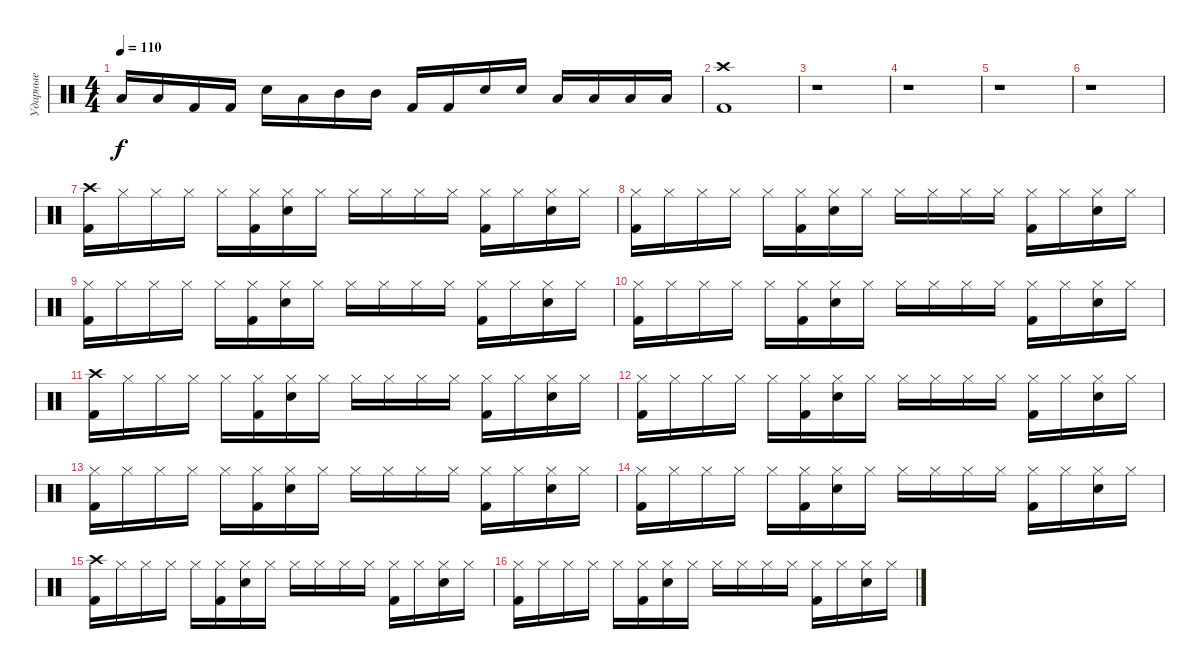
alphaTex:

\track ("Ударные" "Ударные") {instrument percussion}
\staff {score}
\articulation defaults
\ts (4 4)
\tempo 110
\clef neutral
\ks c "Low Tom (hit)".16{dy f} "Low Tom (hit)".16 "Kick (hit) 2".16 "Kick (hit) 2".16 "Electric Snare (hit)".16 "Low Tom (hit)".16 "Mid Tom (hit)".16 "Mid Tom (hit)".16 "Kick (hit) 2".16 "Kick (hit) 2".16 "Electric Snare (hit)".16 "Electric Snare (hit)".16 "Low Tom (hit)".16 "Low Tom (hit)".16 "Low Tom (hit)".16 "Low Tom (hit)".16
|
("Crash high (hit)" "Kick (hit) 2").1 |
r.1 |
r.1 |
r.1 |
r.1 |
("Crash high (hit)" "Kick (hit) 2").16 "Hi-Hat (closed)".16 "Hi-Hat (closed)".16 "Hi-Hat (closed)".16 "Hi-Hat (closed)".16 ("Kick (hit) 2" "Hi-Hat (closed)").16 ("Hi-Hat (closed)" "Electric Snare (hit)").16 "Hi-Hat (closed)".16 "Hi-Hat (closed)".16 "Hi-Hat (closed)".16 "Hi-Hat (closed)".16 "Hi-Hat (closed)".16 ("Kick (hit) 2" "Hi-Hat (closed)").16 "Hi-Hat (closed)".16 ("Hi-Hat (closed)" "Electric Snare (hit)").16 "Hi-Hat (closed)".16 |
("Hi-Hat (closed)" "Kick (hit) 2").16 "Hi-Hat (closed)".16 "Hi-Hat (closed)".16 "Hi-Hat (closed)".16 "Hi-Hat (closed)".16 ("Kick (hit) 2" "Hi-Hat (closed)").16 ("Hi-Hat (closed)" "Electric Snare (hit)").16 "Hi-Hat (closed)".16 "Hi-Hat (closed)".16 "Hi-Hat (closed)".16 "Hi-Hat (closed)".16 "Hi-Hat (closed)".16 ("Kick (hit) 2" "Hi-Hat (closed)").16 "Hi-Hat (closed)".16 ("Hi-Hat (closed)" "Electric Snare (hit)").16 "Hi-Hat (closed)".16 |
("Hi-Hat (closed)" "Kick (hit) 2").16 "Hi-Hat (closed)".16 "Hi-Hat (closed)".16 "Hi-Hat (closed)".16 "Hi-Hat (closed)".16 ("Kick (hit) 2" "Hi-Hat (closed)").16 ("Hi-Hat (closed)" "Electric Snare (hit)").16 "Hi-Hat (closed)".16 "Hi-Hat (closed)".16 "Hi-Hat (closed)".16 "Hi-Hat (closed)".16 "Hi-Hat (closed)".16 ("Kick (hit) 2" "Hi-Hat (closed)").16 "Hi-Hat (closed)".16 ("Hi-Hat (closed)" "Electric Snare (hit)").16 "Hi-Hat (closed)".16 |
("Hi-Hat (closed)" "Kick (hit) 2").16 "Hi-Hat (closed)".16 "Hi-Hat (closed)".16 "Hi-Hat (closed)".16 "Hi-Hat (closed)".16 ("Kick (hit) 2" "Hi-Hat (closed)").16 ("Hi-Hat (closed)" "Electric Snare (hit)").16 "Hi-Hat (closed)".16 "Hi-Hat (closed)".16 "Hi-Hat (closed)".16 "Hi-Hat (closed)".16 "Hi-Hat (closed)".16 ("Kick (hit) 2" "Hi-Hat (closed)").16 "Hi-Hat (closed)".16 ("Hi-Hat (closed)" "Electric Snare (hit)").16 "Hi-Hat (closed)".16 |
("Crash high (hit)" "Kick (hit) 2").16 "Hi-Hat (closed)".16 "Hi-Hat (closed)".16 "Hi-Hat (closed)".16 "Hi-Hat (closed)".16 ("Kick (hit) 2" "Hi-Hat (closed)").16 ("Hi-Hat (closed)" "Electric Snare (hit)").16 "Hi-Hat (closed)".16 "Hi-Hat (closed)".16 "Hi-Hat (closed)".16 "Hi-Hat (closed)".16 "Hi-Hat (closed)".16 ("Kick (hit) 2" "Hi-Hat (closed)").16 "Hi-Hat (closed)".16 ("Hi-Hat (closed)" "Electric Snare (hit)").16 "Hi-Hat (closed)".16 |
("Hi-Hat (closed)" "Kick (hit) 2").16 "Hi-Hat (closed)".16 "Hi-Hat (closed)".16 "Hi-Hat (closed)".16 "Hi-Hat (closed)".16 ("Kick (hit) 2" "Hi-Hat (closed)").16 ("Hi-Hat (closed)" "Electric Snare (hit)").16 "Hi-Hat (closed)".16 "Hi-Hat (closed)".16 "Hi-Hat (closed)".16 "Hi-Hat (closed)".16 "Hi-Hat (closed)".16 ("Kick (hit) 2" "Hi-Hat (closed)").16 "Hi-Hat (closed)".16 ("Hi-Hat (closed)" "Electric Snare (hit)").16 "Hi-Hat (closed)".16 |
("Hi-Hat (closed)" "Kick (hit) 2").16 "Hi-Hat (closed)".16 "Hi-Hat (closed)".16 "Hi-Hat (closed)".16 "Hi-Hat (closed)".16 ("Kick (hit) 2" "Hi-Hat (closed)").16 ("Hi-Hat (closed)" "Electric Snare (hit)").16 "Hi-Hat (closed)".16 "Hi-Hat (closed)".16 "Hi-Hat (closed)".16 "Hi-Hat (closed)".16 "Hi-Hat (closed)".16 ("Kick (hit) 2" "Hi-Hat (closed)").16 "Hi-Hat (closed)".16 ("Hi-Hat (closed)" "Electric Snare (hit)").16 "Hi-Hat (closed)".16 |
("Hi-Hat (closed)" "Kick (hit) 2").16 "Hi-Hat (closed)".16 "Hi-Hat (closed)".16 "Hi-Hat (closed)".16 "Hi-Hat (closed)".16 ("Kick (hit) 2" "Hi-Hat (closed)").16 ("Hi-Hat (closed)" "Electric Snare (hit)").16 "Hi-Hat (closed)".16 "Hi-Hat (closed)".16 "Hi-Hat (closed)".16 "Hi-Hat (closed)".16 "Hi-Hat (closed)".16 ("Kick (hit) 2" "Hi-Hat (closed)").16 "Hi-Hat (closed)".16 ("Hi-Hat (closed)" "Electric Snare (hit)").16 "Hi-Hat (closed)".16 |
("Crash high (hit)" "Kick (hit) 2").16 "Hi-Hat (closed)".16 "Hi-Hat (closed)".16 "Hi-Hat (closed)".16 "Hi-Hat (closed)".16 ("Kick (hit) 2" "Hi-Hat (closed)").16 ("Hi-Hat (closed)" "Electric Snare (hit)").16 "Hi-Hat (closed)".16 "Hi-Hat (closed)".16 "Hi-Hat (closed)".16 "Hi-Hat (closed)".16 "Hi-Hat (closed)".16 ("Kick (hit) 2" "Hi-Hat (closed)").16 "Hi-Hat (closed)".16 ("Hi-Hat (closed)" "Electric Snare (hit)").16 "Hi-Hat (closed)".16 |
("Hi-Hat (closed)" "Kick (hit) 2").16 "Hi-Hat (closed)".16 "Hi-Hat (closed)".16 "Hi-Hat (closed)".16 "Hi-Hat (closed)".16 ("Kick (hit) 2" "Hi-Hat (closed)").16 ("Hi-Hat (closed)" "Electric Snare (hit)").16 "Hi-Hat (closed)".16 "Hi-Hat (closed)".16 "Hi-Hat (closed)".16 "Hi-Hat (closed)".16 "Hi-Hat (closed)".16 ("Kick (hit) 2" "Hi-Hat (closed)").16 "Hi-Hat (closed)".16 ("Hi-Hat (closed)" "Electric Snare (hit)").16 "Hi-Hat (closed)".16
